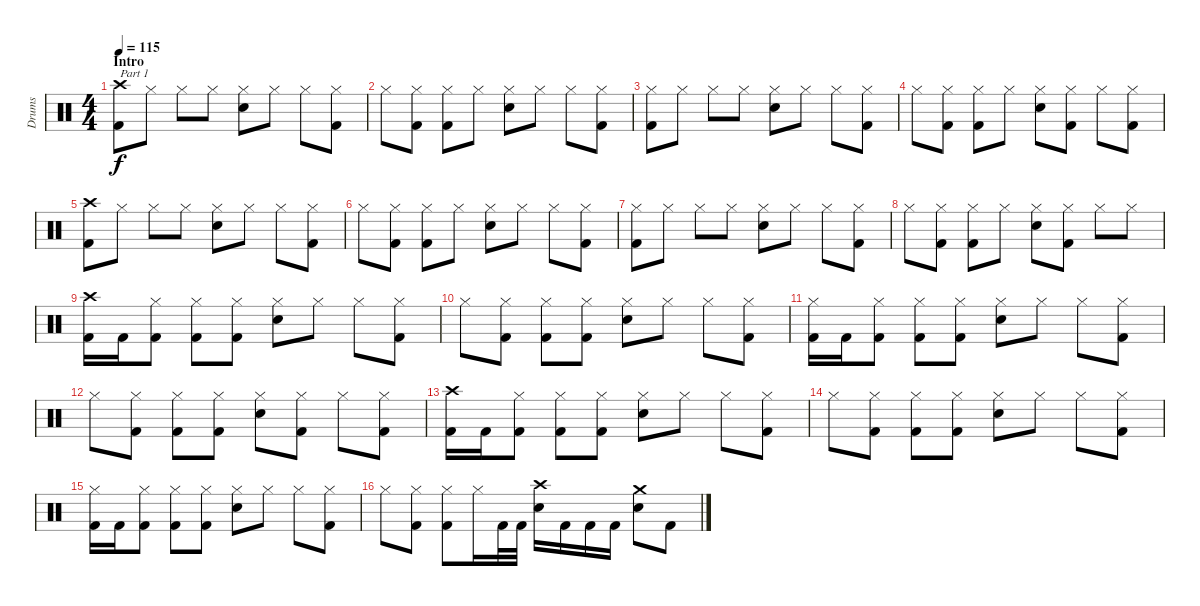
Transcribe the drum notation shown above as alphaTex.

\track ("Drums" "Drums") {instrument percussion}
\staff {score}
\articulation defaults
\ts (4 4)
\section ("" "Intro")
\tempo 115
\tempo 139
\tempo 115
\clef neutral
\ks c
("Crash high (hit)" "Kick (hit) 2").8{txt "Part 1" dy f} "Hi-Hat (closed)".8 "Hi-Hat (closed)".8 "Hi-Hat (closed)".8 ("Hi-Hat (closed)" "Snare (hit) 2").8 "Hi-Hat (closed)".8 "Hi-Hat (closed)".8 ("Hi-Hat (closed)" "Kick (hit) 2").8 |
"Hi-Hat (closed)".8 ("Hi-Hat (closed)" "Kick (hit) 2").8 ("Hi-Hat (closed)" "Kick (hit) 2").8 "Hi-Hat (closed)".8 ("Hi-Hat (closed)" "Snare (hit) 2").8 "Hi-Hat (closed)".8 "Hi-Hat (closed)".8 ("Hi-Hat (closed)" "Kick (hit) 2").8 |
("Hi-Hat (closed)" "Kick (hit) 2").8 "Hi-Hat (closed)".8 "Hi-Hat (closed)".8 "Hi-Hat (closed)".8 ("Hi-Hat (closed)" "Snare (hit) 2").8 "Hi-Hat (closed)".8 "Hi-Hat (closed)".8 ("Hi-Hat (closed)" "Kick (hit) 2").8 |
"Hi-Hat (closed)".8 ("Hi-Hat (closed)" "Kick (hit) 2").8 ("Hi-Hat (closed)" "Kick (hit) 2").8 "Hi-Hat (closed)".8 ("Hi-Hat (closed)" "Snare (hit) 2").8 ("Hi-Hat (closed)" "Kick (hit) 2").8 "Hi-Hat (closed)".8 ("Hi-Hat (closed)" "Kick (hit) 2").8 |
("Crash high (hit)" "Kick (hit) 2").8 "Hi-Hat (closed)".8 "Hi-Hat (closed)".8 "Hi-Hat (closed)".8 ("Hi-Hat (closed)" "Snare (hit) 2").8 "Hi-Hat (closed)".8 "Hi-Hat (closed)".8 ("Hi-Hat (closed)" "Kick (hit) 2").8 |
"Hi-Hat (closed)".8 ("Hi-Hat (closed)" "Kick (hit) 2").8 ("Hi-Hat (closed)" "Kick (hit) 2").8 "Hi-Hat (closed)".8 ("Hi-Hat (closed)" "Snare (hit) 2").8 "Hi-Hat (closed)".8 "Hi-Hat (closed)".8 ("Hi-Hat (closed)" "Kick (hit) 2").8 |
("Hi-Hat (closed)" "Kick (hit) 2").8 "Hi-Hat (closed)".8 "Hi-Hat (closed)".8 "Hi-Hat (closed)".8 ("Hi-Hat (closed)" "Snare (hit) 2").8 "Hi-Hat (closed)".8 "Hi-Hat (closed)".8 ("Hi-Hat (closed)" "Kick (hit) 2").8 |
"Hi-Hat (closed)".8 ("Hi-Hat (closed)" "Kick (hit) 2").8 ("Hi-Hat (closed)" "Kick (hit) 2").8 "Hi-Hat (closed)".8 ("Hi-Hat (closed)" "Snare (hit) 2").8 ("Hi-Hat (closed)" "Kick (hit) 2").8 "Hi-Hat (closed)".8 "Hi-Hat (closed)".8 |
("Crash high (hit)" "Kick (hit) 2").16 "Kick (hit) 2".16 ("Hi-Hat (closed)" "Kick (hit) 2").8 ("Hi-Hat (closed)" "Kick (hit) 2").8 ("Hi-Hat (closed)" "Kick (hit) 2").8 ("Hi-Hat (closed)" "Snare (hit) 2").8 "Hi-Hat (closed)".8 "Hi-Hat (closed)".8 ("Hi-Hat (closed)" "Kick (hit) 2").8 |
"Hi-Hat (closed)".8 ("Hi-Hat (closed)" "Kick (hit) 2").8 ("Hi-Hat (closed)" "Kick (hit) 2").8 ("Hi-Hat (closed)" "Kick (hit) 2").8 ("Hi-Hat (closed)" "Snare (hit) 2").8 "Hi-Hat (closed)".8 "Hi-Hat (closed)".8 ("Hi-Hat (closed)" "Kick (hit) 2").8 |
("Hi-Hat (closed)" "Kick (hit) 2").16 "Kick (hit) 2".16 ("Hi-Hat (closed)" "Kick (hit) 2").8 ("Hi-Hat (closed)" "Kick (hit) 2").8 ("Hi-Hat (closed)" "Kick (hit) 2").8 ("Hi-Hat (closed)" "Snare (hit) 2").8 "Hi-Hat (closed)".8 "Hi-Hat (closed)".8 ("Hi-Hat (closed)" "Kick (hit) 2").8 |
"Hi-Hat (closed)".8 ("Hi-Hat (closed)" "Kick (hit) 2").8 ("Hi-Hat (closed)" "Kick (hit) 2").8 ("Hi-Hat (closed)" "Kick (hit) 2").8 ("Hi-Hat (closed)" "Snare (hit) 2").8 ("Hi-Hat (closed)" "Kick (hit) 2").8 "Hi-Hat (closed)".8 ("Hi-Hat (closed)" "Kick (hit) 2").8 |
("Crash high (hit)" "Kick (hit) 2").16 "Kick (hit) 2".16 ("Hi-Hat (closed)" "Kick (hit) 2").8 ("Hi-Hat (closed)" "Kick (hit) 2").8 ("Hi-Hat (closed)" "Kick (hit) 2").8 ("Hi-Hat (closed)" "Snare (hit) 2").8 "Hi-Hat (closed)".8 "Hi-Hat (closed)".8 ("Hi-Hat (closed)" "Kick (hit) 2").8 |
"Hi-Hat (closed)".8 ("Hi-Hat (closed)" "Kick (hit) 2").8 ("Hi-Hat (closed)" "Kick (hit) 2").8 ("Hi-Hat (closed)" "Kick (hit) 2").8 ("Hi-Hat (closed)" "Snare (hit) 2").8 "Hi-Hat (closed)".8 "Hi-Hat (closed)".8 ("Hi-Hat (closed)" "Kick (hit) 2").8 |
("Hi-Hat (closed)" "Kick (hit) 2").16 "Kick (hit) 2".16 ("Hi-Hat (closed)" "Kick (hit) 2").8 ("Hi-Hat (closed)" "Kick (hit) 2").8 ("Hi-Hat (closed)" "Kick (hit) 2").8 ("Hi-Hat (closed)" "Snare (hit) 2").8 "Hi-Hat (closed)".8 "Hi-Hat (closed)".8 ("Hi-Hat (closed)" "Kick (hit) 2").8 |
"Hi-Hat (closed)".8 ("Hi-Hat (closed)" "Kick (hit) 2").8 ("Hi-Hat (closed)" "Kick (hit) 2").8 "Hi-Hat (closed)".16 "Kick (hit) 2".32 "Kick (hit) 2".32 ("Crash high (hit)" "Snare (hit) 2").16 "Kick (hit) 2".16 "Kick (hit) 2".16 "Kick (hit) 2".16 ("Crash medium (hit)" "Snare (hit) 2").8 "Kick (hit) 2".8
